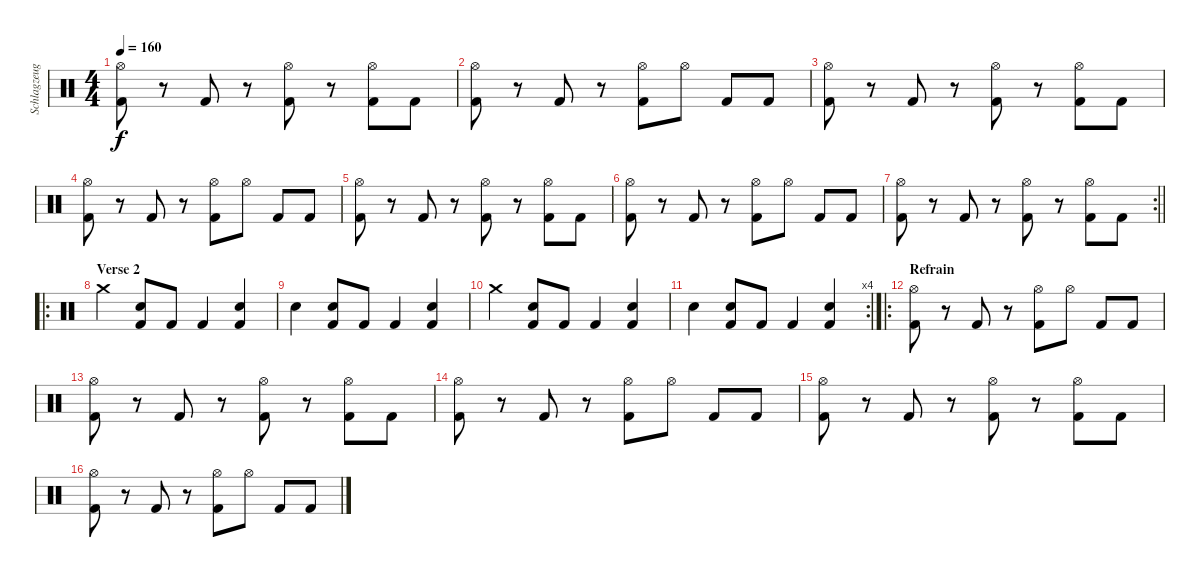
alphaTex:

\track ("Schlagzeug" "Schlagzeug") {instrument percussion}
\staff {score}
\articulation defaults
\ts (4 4)
\tempo 160
\clef neutral
\ks c
("Hi-Hat (open)" "Kick (hit) 2").8{dy f} r.8 "Kick (hit) 2".8 r.8 ("Hi-Hat (open)" "Kick (hit) 2").8 r.8 ("Hi-Hat (open)" "Kick (hit) 2").8 "Kick (hit) 2".8 |
("Hi-Hat (open)" "Kick (hit) 2").8 r.8 "Kick (hit) 2".8 r.8 ("Hi-Hat (open)" "Kick (hit) 2").8 "Hi-Hat (open)".8 "Kick (hit) 2".8 "Kick (hit) 2".8 |
("Hi-Hat (open)" "Kick (hit) 2").8 r.8 "Kick (hit) 2".8 r.8 ("Hi-Hat (open)" "Kick (hit) 2").8 r.8 ("Hi-Hat (open)" "Kick (hit) 2").8 "Kick (hit) 2".8 |
("Hi-Hat (open)" "Kick (hit) 2").8 r.8 "Kick (hit) 2".8 r.8 ("Hi-Hat (open)" "Kick (hit) 2").8 "Hi-Hat (open)".8 "Kick (hit) 2".8 "Kick (hit) 2".8 |
("Hi-Hat (open)" "Kick (hit) 2").8 r.8 "Kick (hit) 2".8 r.8 ("Hi-Hat (open)" "Kick (hit) 2").8 r.8 ("Hi-Hat (open)" "Kick (hit) 2").8 "Kick (hit) 2".8 |
("Hi-Hat (open)" "Kick (hit) 2").8 r.8 "Kick (hit) 2".8 r.8 ("Hi-Hat (open)" "Kick (hit) 2").8 "Hi-Hat (open)".8 "Kick (hit) 2".8 "Kick (hit) 2".8 |
\rc 2
\barLineRight lightlight
("Hi-Hat (open)" "Kick (hit) 2").8 r.8 "Kick (hit) 2".8 r.8 ("Hi-Hat (open)" "Kick (hit) 2").8 r.8 ("Hi-Hat (open)" "Kick (hit) 2").8 "Kick (hit) 2".8 |
\ro
\section ("" "Verse 2")
"Crash medium (hit)".4 ("Electric Snare (hit)" "Kick (hit) 2").8 "Kick (hit) 2".8 "Kick (hit) 2".4 ("Electric Snare (hit)" "Kick (hit) 2").4 |
"Electric Snare (hit)".4 ("Electric Snare (hit)" "Kick (hit) 2").8 "Kick (hit) 2".8 "Kick (hit) 2".4 ("Electric Snare (hit)" "Kick (hit) 2").4 |
"Crash medium (hit)".4 ("Electric Snare (hit)" "Kick (hit) 2").8 "Kick (hit) 2".8 "Kick (hit) 2".4 ("Electric Snare (hit)" "Kick (hit) 2").4 |
\rc 4 "Electric Snare (hit)".4
("Electric Snare (hit)" "Kick (hit) 2").8 "Kick (hit) 2".8 "Kick (hit) 2".4 ("Electric Snare (hit)" "Kick (hit) 2").4 |
\ro
\section ("" "Refrain")
("Hi-Hat (open)" "Kick (hit) 2").8 r.8 "Kick (hit) 2".8 r.8 ("Hi-Hat (open)" "Kick (hit) 2").8 "Hi-Hat (open)".8 "Kick (hit) 2".8 "Kick (hit) 2".8 |
("Hi-Hat (open)" "Kick (hit) 2").8 r.8 "Kick (hit) 2".8 r.8 ("Hi-Hat (open)" "Kick (hit) 2").8 r.8 ("Hi-Hat (open)" "Kick (hit) 2").8 "Kick (hit) 2".8 |
("Hi-Hat (open)" "Kick (hit) 2").8 r.8 "Kick (hit) 2".8 r.8 ("Hi-Hat (open)" "Kick (hit) 2").8 "Hi-Hat (open)".8 "Kick (hit) 2".8 "Kick (hit) 2".8 |
("Hi-Hat (open)" "Kick (hit) 2").8 r.8 "Kick (hit) 2".8 r.8 ("Hi-Hat (open)" "Kick (hit) 2").8 r.8 ("Hi-Hat (open)" "Kick (hit) 2").8 "Kick (hit) 2".8 |
("Hi-Hat (open)" "Kick (hit) 2").8 r.8 "Kick (hit) 2".8 r.8 ("Hi-Hat (open)" "Kick (hit) 2").8 "Hi-Hat (open)".8 "Kick (hit) 2".8 "Kick (hit) 2".8
